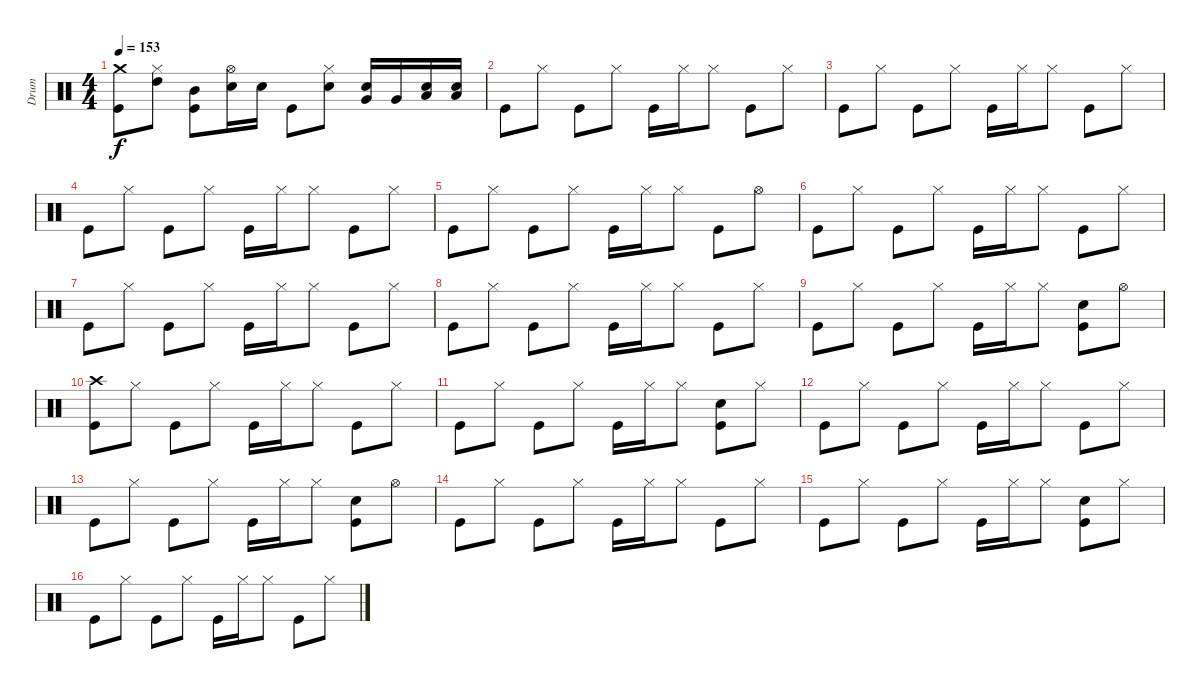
\track ("Drum" "Drum") {instrument percussion}
\staff {score}
\articulation defaults
\ts (4 4)
\tempo 153
\clef neutral
\ks c
("Kick (hit)" "Crash medium (hit)"{t}).8{dy f} ("Hi-Hat (closed)" "High Tom (hit)").8 ("Kick (hit)" "Mid Tom (hit)").8 ("Snare (hit) 2" "Hi-Hat (open)").16 "Snare (hit) 2".16 "Kick (hit)".8 ("Hi-Hat (closed)" "Electric Snare (hit)").8 ("Electric Snare (hit)" "Very Low Tom (hit)").16 "Very Low Tom (hit)".16 ("Electric Snare (hit)" "Low Floor Tom (hit)").16 ("Electric Snare (hit)" "Low Floor Tom (hit)").16 |
"Kick (hit)".8 "Hi-Hat (closed)".8 "Kick (hit)".8 "Hi-Hat (closed)".8 "Kick (hit)".16 "Hi-Hat (closed)".16 "Hi-Hat (closed)".8 "Kick (hit)".8 "Hi-Hat (closed)".8 |
"Kick (hit)".8 "Hi-Hat (closed)".8 "Kick (hit)".8 "Hi-Hat (closed)".8 "Kick (hit)".16 "Hi-Hat (closed)".16 "Hi-Hat (closed)".8 "Kick (hit)".8 "Hi-Hat (closed)".8 |
"Kick (hit)".8 "Hi-Hat (closed)".8 "Kick (hit)".8 "Hi-Hat (closed)".8 "Kick (hit)".16 "Hi-Hat (closed)".16 "Hi-Hat (closed)".8 "Kick (hit)".8 "Hi-Hat (closed)".8 |
"Kick (hit)".8 "Hi-Hat (closed)".8 "Kick (hit)".8 "Hi-Hat (closed)".8 "Kick (hit)".16 "Hi-Hat (closed)".16 "Hi-Hat (closed)".8 "Kick (hit)".8 "Hi-Hat (open)".8 |
"Kick (hit)".8 "Hi-Hat (closed)".8 "Kick (hit)".8 "Hi-Hat (closed)".8 "Kick (hit)".16 "Hi-Hat (closed)".16 "Hi-Hat (closed)".8 "Kick (hit)".8 "Hi-Hat (closed)".8 |
"Kick (hit)".8 "Hi-Hat (closed)".8 "Kick (hit)".8 "Hi-Hat (closed)".8 "Kick (hit)".16 "Hi-Hat (closed)".16 "Hi-Hat (closed)".8 "Kick (hit)".8 "Hi-Hat (closed)".8 |
"Kick (hit)".8 "Hi-Hat (closed)".8 "Kick (hit)".8 "Hi-Hat (closed)".8 "Kick (hit)".16 "Hi-Hat (closed)".16 "Hi-Hat (closed)".8 "Kick (hit)".8 "Hi-Hat (closed)".8 |
"Kick (hit)".8 "Hi-Hat (closed)".8 "Kick (hit)".8 "Hi-Hat (closed)".8 "Kick (hit)".16 "Hi-Hat (closed)".16 "Hi-Hat (closed)".8 ("Kick (hit)" "Snare (hit) 2").8 "Hi-Hat (open)".8 |
("Kick (hit)" "Crash high (hit)").8 "Hi-Hat (closed)".8 "Kick (hit)".8 "Hi-Hat (closed)".8 "Kick (hit)".16 "Hi-Hat (closed)".16 "Hi-Hat (closed)".8 "Kick (hit)".8 "Hi-Hat (closed)".8 |
"Kick (hit)".8 "Hi-Hat (closed)".8 "Kick (hit)".8 "Hi-Hat (closed)".8 "Kick (hit)".16 "Hi-Hat (closed)".16 "Hi-Hat (closed)".8 ("Kick (hit)" "Electric Snare (hit)").8 "Hi-Hat (closed)".8 |
"Kick (hit)".8 "Hi-Hat (closed)".8 "Kick (hit)".8 "Hi-Hat (closed)".8 "Kick (hit)".16 "Hi-Hat (closed)".16 "Hi-Hat (closed)".8 "Kick (hit)".8 "Hi-Hat (closed)".8 |
"Kick (hit)".8 "Hi-Hat (closed)".8 "Kick (hit)".8 "Hi-Hat (closed)".8 "Kick (hit)".16 "Hi-Hat (closed)".16 "Hi-Hat (closed)".8 ("Kick (hit)" "Snare (hit) 2").8 "Hi-Hat (open)".8 |
"Kick (hit)".8 "Hi-Hat (closed)".8 "Kick (hit)".8 "Hi-Hat (closed)".8 "Kick (hit)".16 "Hi-Hat (closed)".16 "Hi-Hat (closed)".8 "Kick (hit)".8 "Hi-Hat (closed)".8 |
"Kick (hit)".8 "Hi-Hat (closed)".8 "Kick (hit)".8 "Hi-Hat (closed)".8 "Kick (hit)".16 "Hi-Hat (closed)".16 "Hi-Hat (closed)".8 ("Kick (hit)" "Electric Snare (hit)").8 "Hi-Hat (closed)".8 |
"Kick (hit)".8 "Hi-Hat (closed)".8 "Kick (hit)".8 "Hi-Hat (closed)".8 "Kick (hit)".16 "Hi-Hat (closed)".16 "Hi-Hat (closed)".8 "Kick (hit)".8 "Hi-Hat (closed)".8
